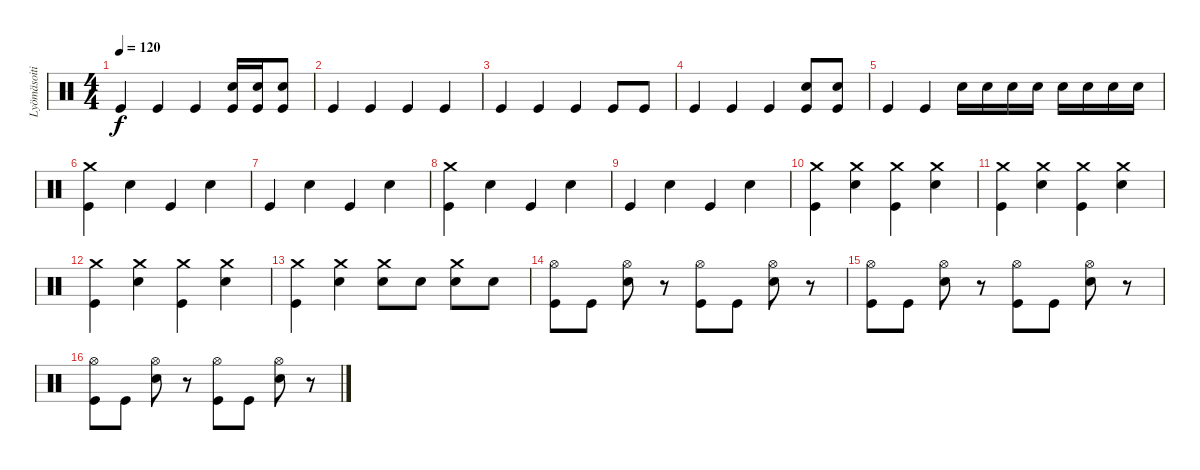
\track ("Lyömäsoitin" "Lyömäsoiti") {instrument percussion}
\staff {score}
\articulation defaults
\ts (4 4)
\tempo 120
\clef neutral
\ks c "Kick (hit)".4{dy f} "Kick (hit)".4 "Kick (hit)".4
("Kick (hit)" "Electric Snare (hit)").16 ("Kick (hit)" "Electric Snare (hit)").16 ("Kick (hit)" "Electric Snare (hit)").8 |
"Kick (hit)".4 "Kick (hit)".4 "Kick (hit)".4 "Kick (hit)".4 |
"Kick (hit)".4 "Kick (hit)".4 "Kick (hit)".4 "Kick (hit)".8 "Kick (hit)".8 |
"Kick (hit)".4 "Kick (hit)".4 "Kick (hit)".4 ("Kick (hit)" "Electric Snare (hit)").8 ("Kick (hit)" "Electric Snare (hit)").8 |
"Kick (hit)".4 "Kick (hit)".4 "Electric Snare (hit)".16 "Electric Snare (hit)".16 "Electric Snare (hit)".16 "Electric Snare (hit)".16 "Electric Snare (hit)".16 "Electric Snare (hit)".16 "Electric Snare (hit)".16 "Electric Snare (hit)".16 |
("Kick (hit)" "Crash medium (hit)").4 "Electric Snare (hit)".4 "Kick (hit)".4 "Electric Snare (hit)".4 |
"Kick (hit)".4 "Electric Snare (hit)".4 "Kick (hit)".4 "Electric Snare (hit)".4 |
("Kick (hit)" "Crash medium (hit)").4 "Electric Snare (hit)".4 "Kick (hit)".4 "Electric Snare (hit)".4 |
"Kick (hit)".4 "Electric Snare (hit)".4 "Kick (hit)".4 "Electric Snare (hit)".4 |
("Kick (hit)" "Crash medium (hit)").4 ("Electric Snare (hit)" "Crash medium (hit)").4 ("Kick (hit)" "Crash medium (hit)").4 ("Electric Snare (hit)" "Crash medium (hit)").4 |
("Kick (hit)" "Crash medium (hit)").4 ("Electric Snare (hit)" "Crash medium (hit)").4 ("Kick (hit)" "Crash medium (hit)").4 ("Electric Snare (hit)" "Crash medium (hit)").4 |
("Kick (hit)" "Crash medium (hit)").4 ("Electric Snare (hit)" "Crash medium (hit)").4 ("Kick (hit)" "Crash medium (hit)").4 ("Electric Snare (hit)" "Crash medium (hit)").4 |
("Kick (hit)" "Crash medium (hit)").4 ("Electric Snare (hit)" "Crash medium (hit)").4 ("Electric Snare (hit)" "Crash medium (hit)").8 "Electric Snare (hit)".8 ("Electric Snare (hit)" "Crash medium (hit)").8 "Electric Snare (hit)".8 |
("Hi-Hat (open)" "Kick (hit)").8 "Kick (hit)".8 ("Hi-Hat (open)" "Electric Snare (hit)").8 r.8 ("Hi-Hat (open)" "Kick (hit)").8 "Kick (hit)".8 ("Hi-Hat (open)" "Electric Snare (hit)").8 r.8 |
("Hi-Hat (open)" "Kick (hit)").8 "Kick (hit)".8 ("Hi-Hat (open)" "Electric Snare (hit)").8 r.8 ("Hi-Hat (open)" "Kick (hit)").8 "Kick (hit)".8 ("Hi-Hat (open)" "Electric Snare (hit)").8 r.8 |
("Hi-Hat (open)" "Kick (hit)").8 "Kick (hit)".8 ("Hi-Hat (open)" "Electric Snare (hit)").8 r.8 ("Hi-Hat (open)" "Kick (hit)").8 "Kick (hit)".8 ("Hi-Hat (open)" "Electric Snare (hit)").8 r.8
